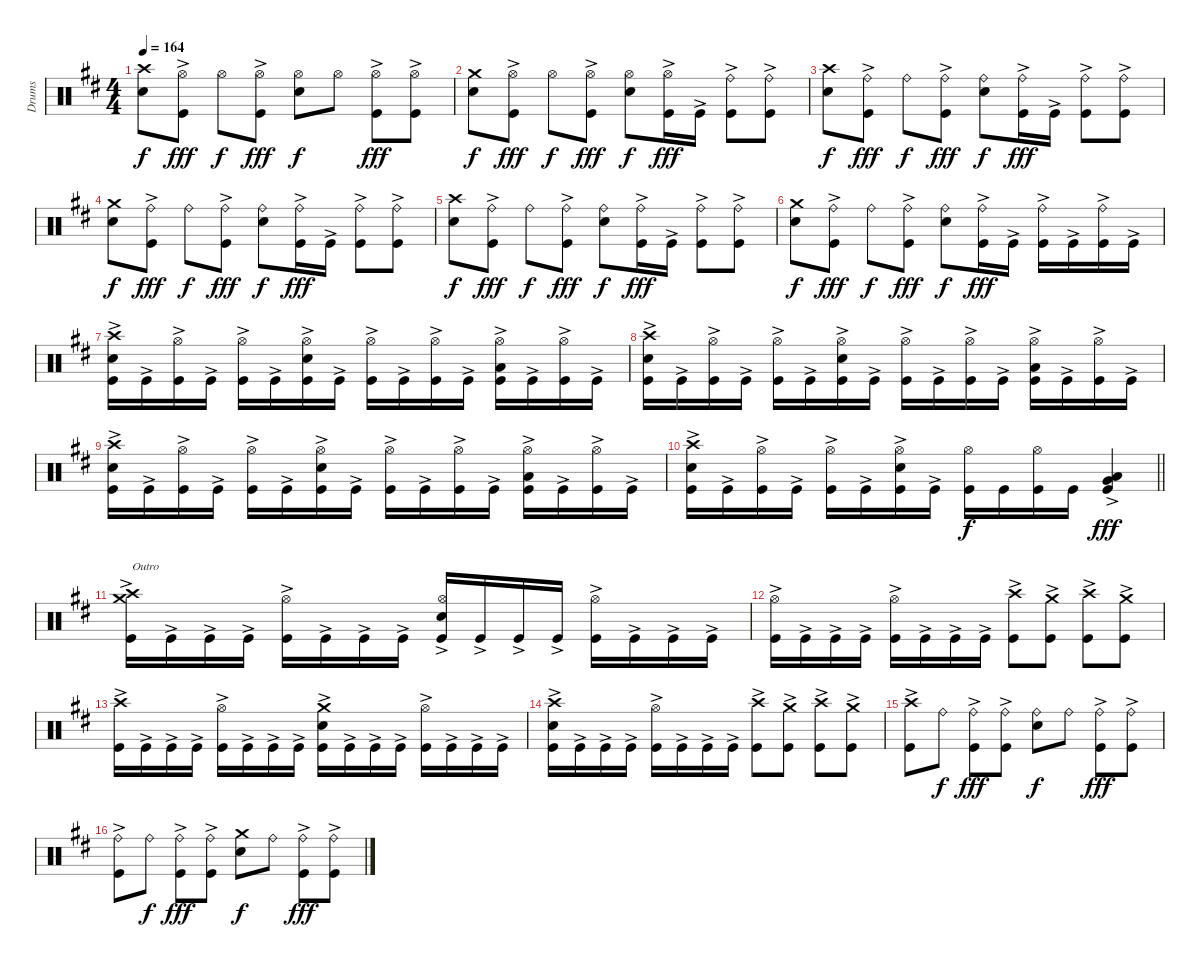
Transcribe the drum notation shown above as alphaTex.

\track ("Drums" "Drums") {instrument percussion}
\staff {score}
\articulation defaults
\ts (4 4)
\tempo 164
\clef neutral
\ks bminor
("Crash high (hit)" "Snare (hit) 2").8{dy f} ("Hi-Hat (open)" "Kick (hit)"{ac}).8{dy fff} "Hi-Hat (open)".8{dy f} ("Hi-Hat (open)" "Kick (hit)"{ac}).8{dy fff} ("Hi-Hat (open)" "Snare (hit) 2").8{dy f} "Hi-Hat (open)".8 ("Hi-Hat (open)" "Kick (hit)"{ac}).8{dy fff} ("Hi-Hat (open)" "Kick (hit)"{ac}).8 |
("Crash medium (hit)" "Snare (hit) 2").8{dy f} ("Hi-Hat (open)" "Kick (hit)"{ac}).8{dy fff} "Hi-Hat (open)".8{dy f} ("Hi-Hat (open)" "Kick (hit)"{ac}).8{dy fff} ("Hi-Hat (open)" "Snare (hit) 2").8{dy f} ("Hi-Hat (open)" "Kick (hit)"{ac}).16{dy fff} "Kick (hit)"{ac}.16 ("Ride (bell)" "Kick (hit)"{ac}).8 ("Ride (bell)" "Kick (hit)"{ac}).8 |
("Crash high (hit)" "Snare (hit) 2").8{dy f} ("Ride (bell)" "Kick (hit)"{ac}).8{dy fff} "Ride (bell)".8{dy f} ("Ride (bell)" "Kick (hit)"{ac}).8{dy fff} ("Ride (bell)" "Snare (hit) 2").8{dy f} ("Ride (bell)" "Kick (hit)"{ac}).16{dy fff} "Kick (hit)"{ac}.16 ("Ride (bell)" "Kick (hit)"{ac}).8 ("Ride (bell)" "Kick (hit)"{ac}).8 |
("Crash medium (hit)" "Snare (hit) 2").8{dy f} ("Ride (bell)" "Kick (hit)"{ac}).8{dy fff} "Ride (bell)".8{dy f} ("Ride (bell)" "Kick (hit)"{ac}).8{dy fff} ("Ride (bell)" "Snare (hit) 2").8{dy f} ("Ride (bell)" "Kick (hit)"{ac}).16{dy fff} "Kick (hit)"{ac}.16 ("Ride (bell)" "Kick (hit)"{ac}).8 ("Ride (bell)" "Kick (hit)"{ac}).8 |
("Crash high (hit)" "Snare (hit) 2").8{dy f} ("Ride (bell)" "Kick (hit)"{ac}).8{dy fff} "Ride (bell)".8{dy f} ("Ride (bell)" "Kick (hit)"{ac}).8{dy fff} ("Ride (bell)" "Snare (hit) 2").8{dy f} ("Ride (bell)" "Kick (hit)"{ac}).16{dy fff} "Kick (hit)"{ac}.16 ("Ride (bell)" "Kick (hit)"{ac}).8 ("Ride (bell)" "Kick (hit)"{ac}).8 |
("Crash medium (hit)" "Snare (hit) 2").8{dy f} ("Ride (bell)" "Kick (hit)"{ac}).8{dy fff} "Ride (bell)".8{dy f} ("Ride (bell)" "Kick (hit)"{ac}).8{dy fff} ("Ride (bell)" "Snare (hit) 2").8{dy f} ("Ride (bell)" "Kick (hit)"{ac}).16{dy fff} "Kick (hit)"{ac}.16 ("Ride (bell)" "Kick (hit)"{ac}).16 "Kick (hit)"{ac}.16 ("Ride (bell)" "Kick (hit)"{ac}).16 "Kick (hit)"{ac}.16 |
("Crash high (hit)" "Snare (hit) 2" "Kick (hit)"{ac}).16 "Kick (hit)"{ac}.16 ("Hi-Hat (open)" "Kick (hit)"{ac}).16 "Kick (hit)"{ac}.16 ("Hi-Hat (open)" "Kick (hit)"{ac}).16 "Kick (hit)"{ac}.16 ("Hi-Hat (open)" "Snare (hit) 2" "Kick (hit)"{ac}).16 "Kick (hit)"{ac}.16 ("Hi-Hat (open)" "Kick (hit)"{ac}).16 "Kick (hit)"{ac}.16 ("Hi-Hat (open)" "Kick (hit)"{ac}).16 "Kick (hit)"{ac}.16 ("Hi-Hat (open)" "Low Tom (hit)"{ac} "Kick (hit)"{ac}).16 "Kick (hit)"{ac}.16 ("Hi-Hat (open)" "Kick (hit)"{ac}).16 "Kick (hit)"{ac}.16 |
("Crash high (hit)" "Snare (hit) 2" "Kick (hit)"{ac}).16 "Kick (hit)"{ac}.16 ("Hi-Hat (open)" "Kick (hit)"{ac}).16 "Kick (hit)"{ac}.16 ("Hi-Hat (open)" "Kick (hit)"{ac}).16 "Kick (hit)"{ac}.16 ("Hi-Hat (open)" "Snare (hit) 2" "Kick (hit)"{ac}).16 "Kick (hit)"{ac}.16 ("Hi-Hat (open)" "Kick (hit)"{ac}).16 "Kick (hit)"{ac}.16 ("Hi-Hat (open)" "Kick (hit)"{ac}).16 "Kick (hit)"{ac}.16 ("Hi-Hat (open)" "Low Tom (hit)"{ac} "Kick (hit)"{ac}).16 "Kick (hit)"{ac}.16 ("Hi-Hat (open)" "Kick (hit)"{ac}).16 "Kick (hit)"{ac}.16 |
("Crash high (hit)" "Snare (hit) 2" "Kick (hit)"{ac}).16 "Kick (hit)"{ac}.16 ("Hi-Hat (open)" "Kick (hit)"{ac}).16 "Kick (hit)"{ac}.16 ("Hi-Hat (open)" "Kick (hit)"{ac}).16 "Kick (hit)"{ac}.16 ("Hi-Hat (open)" "Snare (hit) 2" "Kick (hit)"{ac}).16 "Kick (hit)"{ac}.16 ("Hi-Hat (open)" "Kick (hit)"{ac}).16 "Kick (hit)"{ac}.16 ("Hi-Hat (open)" "Kick (hit)"{ac}).16 "Kick (hit)"{ac}.16 ("Hi-Hat (open)" "Low Tom (hit)"{ac} "Kick (hit)"{ac}).16 "Kick (hit)"{ac}.16 ("Hi-Hat (open)" "Kick (hit)"{ac}).16 "Kick (hit)"{ac}.16 |
\barLineRight lightlight
("Crash high (hit)" "Snare (hit) 2" "Kick (hit)"{ac}).16 "Kick (hit)"{ac}.16 ("Hi-Hat (open)" "Kick (hit)"{ac}).16 "Kick (hit)"{ac}.16 ("Hi-Hat (open)" "Kick (hit)"{ac}).16 "Kick (hit)"{ac}.16 ("Hi-Hat (open)" "Snare (hit) 2" "Kick (hit)"{ac}).16 "Kick (hit)"{ac}.16 ("Hi-Hat (open)" "Kick (hit)").16{dy f} "Kick (hit)".16 ("Hi-Hat (open)" "Kick (hit)").16 "Kick (hit)".16 ("Low Tom (hit)"{ac} "Very Low Tom (hit)"{ac} "Kick (hit)"{ac}).4{dy fff} |
("Crash high (hit)" "Crash medium (hit)" "Kick (hit)"{ac}).16{txt "Outro"} "Kick (hit)"{ac}.16 "Kick (hit)"{ac}.16 "Kick (hit)"{ac}.16 ("Hi-Hat (open)" "Kick (hit)"{ac}).16 "Kick (hit)"{ac}.16 "Kick (hit)"{ac}.16 "Kick (hit)"{ac}.16 ("Hi-Hat (open)" "Snare (hit) 2" "Kick (hit)"{ac}).16 "Kick (hit)"{ac}.16 "Kick (hit)"{ac}.16 "Kick (hit)"{ac}.16 ("Hi-Hat (open)" "Kick (hit)"{ac}).16 "Kick (hit)"{ac}.16 "Kick (hit)"{ac}.16 "Kick (hit)"{ac}.16 |
("Hi-Hat (open)" "Kick (hit)"{ac}).16 "Kick (hit)"{ac}.16 "Kick (hit)"{ac}.16 "Kick (hit)"{ac}.16 ("Hi-Hat (open)" "Kick (hit)"{ac}).16 "Kick (hit)"{ac}.16 "Kick (hit)"{ac}.16 "Kick (hit)"{ac}.16 ("Crash high (hit)" "Kick (hit)"{ac}).8 ("Crash medium (hit)" "Kick (hit)"{ac}).8 ("Crash high (hit)" "Kick (hit)"{ac}).8 ("Crash medium (hit)" "Kick (hit)"{ac}).8 |
("Crash high (hit)" "Kick (hit)"{ac}).16 "Kick (hit)"{ac}.16 "Kick (hit)"{ac}.16 "Kick (hit)"{ac}.16 ("Hi-Hat (open)" "Kick (hit)"{ac}).16 "Kick (hit)"{ac}.16 "Kick (hit)"{ac}.16 "Kick (hit)"{ac}.16 ("Crash medium (hit)" "Snare (hit) 2" "Kick (hit)"{ac}).16 "Kick (hit)"{ac}.16 "Kick (hit)"{ac}.16 "Kick (hit)"{ac}.16 ("Hi-Hat (open)" "Kick (hit)"{ac}).16 "Kick (hit)"{ac}.16 "Kick (hit)"{ac}.16 "Kick (hit)"{ac}.16 |
("Crash high (hit)" "Snare (hit) 2" "Kick (hit)"{ac}).16 "Kick (hit)"{ac}.16 "Kick (hit)"{ac}.16 "Kick (hit)"{ac}.16 ("Hi-Hat (open)" "Kick (hit)"{ac}).16 "Kick (hit)"{ac}.16 "Kick (hit)"{ac}.16 "Kick (hit)"{ac}.16 ("Crash high (hit)" "Kick (hit)"{ac}).8 ("Crash medium (hit)" "Kick (hit)"{ac}).8 ("Crash high (hit)" "Kick (hit)"{ac}).8 ("Crash medium (hit)" "Kick (hit)"{ac}).8 |
("Crash high (hit)" "Kick (hit)"{ac}).8 "Ride (bell)".8{dy f} ("Ride (bell)" "Kick (hit)"{ac}).8{dy fff} ("Ride (bell)" "Kick (hit)"{ac}).8 ("Ride (bell)" "Snare (hit) 2").8{dy f} "Ride (bell)".8 ("Ride (bell)" "Kick (hit)"{ac}).8{dy fff} ("Ride (bell)" "Kick (hit)"{ac}).8 |
("Ride (bell)" "Kick (hit)"{ac}).8 "Ride (bell)".8{dy f} ("Ride (bell)" "Kick (hit)"{ac}).8{dy fff} ("Ride (bell)" "Kick (hit)"{ac}).8 ("Crash medium (hit)" "Snare (hit) 2").8{dy f} "Ride (bell)".8 ("Ride (bell)" "Kick (hit)"{ac}).8{dy fff} ("Ride (bell)" "Kick (hit)"{ac}).8
